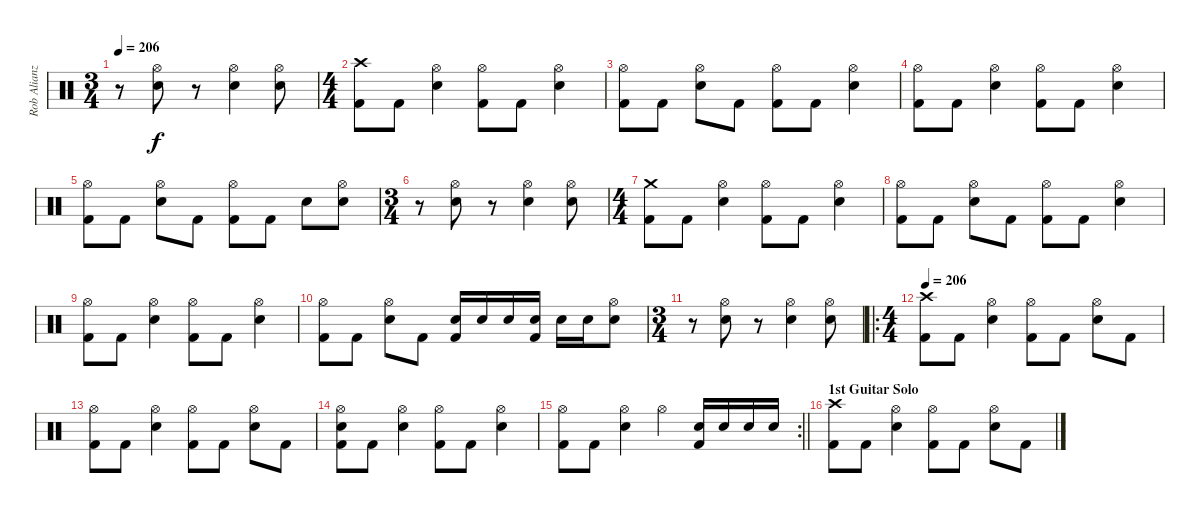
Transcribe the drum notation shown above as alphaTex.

\track ("Rob Alianz" "Rob Alianz") {instrument percussion}
\staff {score}
\articulation defaults
\ts (3 4)
\tempo 206
\clef neutral
\ks c
r.8{dy f} ("Hi-Hat (open)" "Electric Snare (hit)").8 r.8 ("Hi-Hat (open)" "Electric Snare (hit)").4 ("Hi-Hat (open)" "Electric Snare (hit)").8 |
\ts (4 4)
("Crash high (hit)" "Kick (hit) 2").8 "Kick (hit) 2".8 ("Hi-Hat (open)" "Electric Snare (hit)").4 ("Hi-Hat (open)" "Kick (hit) 2").8 "Kick (hit) 2".8 ("Hi-Hat (open)" "Electric Snare (hit)").4 |
("Hi-Hat (open)" "Kick (hit) 2").8 "Kick (hit) 2".8 ("Hi-Hat (open)" "Electric Snare (hit)").8 "Kick (hit) 2".8 ("Hi-Hat (open)" "Kick (hit) 2").8 "Kick (hit) 2".8 ("Hi-Hat (open)" "Electric Snare (hit)").4 |
("Hi-Hat (open)" "Kick (hit) 2").8 "Kick (hit) 2".8 ("Hi-Hat (open)" "Electric Snare (hit)").4 ("Hi-Hat (open)" "Kick (hit) 2").8 "Kick (hit) 2".8 ("Hi-Hat (open)" "Electric Snare (hit)").4 |
("Hi-Hat (open)" "Kick (hit) 2").8 "Kick (hit) 2".8 ("Hi-Hat (open)" "Electric Snare (hit)").8 "Kick (hit) 2".8 ("Hi-Hat (open)" "Kick (hit) 2").8 "Kick (hit) 2".8 "Electric Snare (hit)".8 ("Hi-Hat (open)" "Electric Snare (hit)").8 |
\ts (3 4)
r.8 ("Hi-Hat (open)" "Electric Snare (hit)").8 r.8 ("Hi-Hat (open)" "Electric Snare (hit)").4 ("Hi-Hat (open)" "Electric Snare (hit)").8 |
\ts (4 4)
("Crash medium (hit)" "Kick (hit) 2").8 "Kick (hit) 2".8 ("Hi-Hat (open)" "Electric Snare (hit)").4 ("Hi-Hat (open)" "Kick (hit) 2").8 "Kick (hit) 2".8 ("Hi-Hat (open)" "Electric Snare (hit)").4 |
("Hi-Hat (open)" "Kick (hit) 2").8 "Kick (hit) 2".8 ("Hi-Hat (open)" "Electric Snare (hit)").8 "Kick (hit) 2".8 ("Hi-Hat (open)" "Kick (hit) 2").8 "Kick (hit) 2".8 ("Hi-Hat (open)" "Electric Snare (hit)").4 |
("Hi-Hat (open)" "Kick (hit) 2").8 "Kick (hit) 2".8 ("Hi-Hat (open)" "Electric Snare (hit)").4 ("Hi-Hat (open)" "Kick (hit) 2").8 "Kick (hit) 2".8 ("Hi-Hat (open)" "Electric Snare (hit)").4 |
("Hi-Hat (open)" "Kick (hit) 2").8 "Kick (hit) 2".8 ("Hi-Hat (open)" "Electric Snare (hit)").8 "Kick (hit) 2".8 ("Electric Snare (hit)" "Kick (hit) 2").16 "Electric Snare (hit)".16 "Electric Snare (hit)".16 ("Electric Snare (hit)" "Kick (hit) 2").16 "Electric Snare (hit)".16 "Electric Snare (hit)".16 ("Hi-Hat (open)" "Electric Snare (hit)").8 |
\ts (3 4)
r.8 ("Hi-Hat (open)" "Electric Snare (hit)").8 r.8 ("Hi-Hat (open)" "Electric Snare (hit)").4 ("Hi-Hat (open)" "Electric Snare (hit)").8 |
\ro
\ts (4 4)
\tempo 206
("Crash high (hit)" "Kick (hit) 2").8 "Kick (hit) 2".8 ("Hi-Hat (open)" "Electric Snare (hit)").4 ("Hi-Hat (open)" "Kick (hit) 2").8 "Kick (hit) 2".8 ("Hi-Hat (open)" "Electric Snare (hit)").8 "Kick (hit) 2".8 |
("Hi-Hat (open)" "Kick (hit) 2").8 "Kick (hit) 2".8 ("Hi-Hat (open)" "Electric Snare (hit)").4 ("Hi-Hat (open)" "Kick (hit) 2").8 "Kick (hit) 2".8 ("Hi-Hat (open)" "Electric Snare (hit)").8 "Kick (hit) 2".8 |
("Hi-Hat (open)" "Electric Snare (hit)" "Kick (hit) 2").8 "Kick (hit) 2".8 ("Hi-Hat (open)" "Electric Snare (hit)").4 ("Hi-Hat (open)" "Kick (hit) 2").8 "Kick (hit) 2".8 ("Hi-Hat (open)" "Electric Snare (hit)").4 |
\rc 2
\barLineRight lightlight
("Hi-Hat (open)" "Kick (hit) 2").8 "Kick (hit) 2".8 ("Hi-Hat (open)" "Electric Snare (hit)").4 "Hi-Hat (open)".4 ("Electric Snare (hit)" "Kick (hit) 2").16 "Electric Snare (hit)".16 "Electric Snare (hit)".16 "Electric Snare (hit)".16 |
\section ("" "1st Guitar Solo")
("Crash high (hit)" "Kick (hit) 2").8 "Kick (hit) 2".8 ("Hi-Hat (open)" "Electric Snare (hit)").4 ("Hi-Hat (open)" "Kick (hit) 2").8 "Kick (hit) 2".8 ("Hi-Hat (open)" "Electric Snare (hit)").8 "Kick (hit) 2".8
